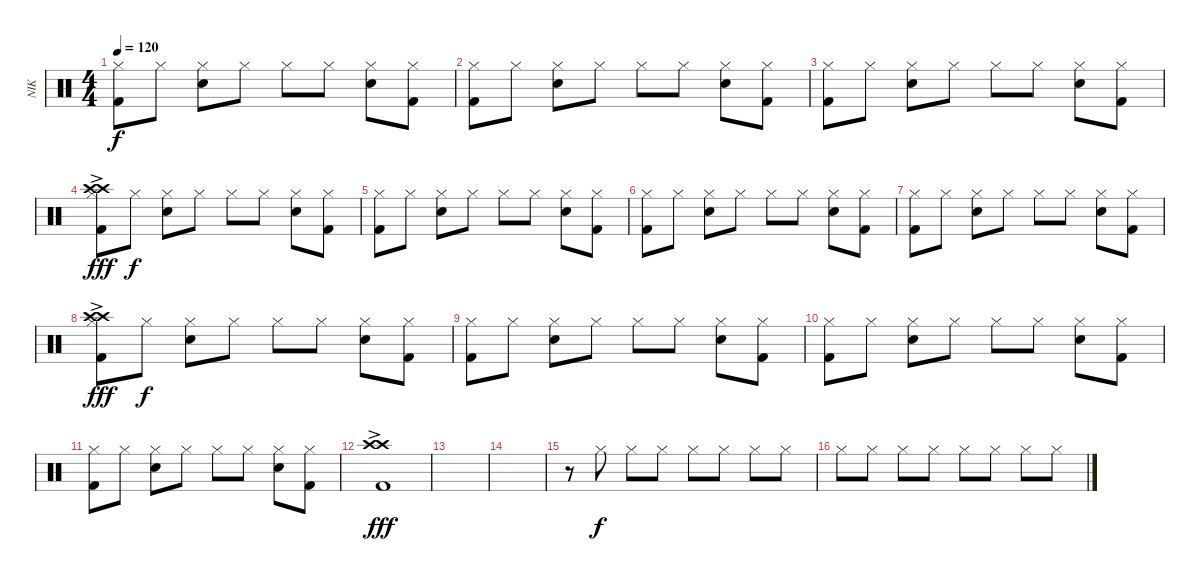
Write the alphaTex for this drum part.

\track ("NIK" "NIK") {instrument percussion}
\staff {score}
\articulation defaults
\ts (4 4)
\tempo 120
\clef neutral
\ks c
("Hi-Hat (closed)" "Kick (hit) 2").8{dy f} "Hi-Hat (closed)".8 ("Snare (hit) 2" "Hi-Hat (closed)").8 "Hi-Hat (closed)".8 "Hi-Hat (closed)".8 "Hi-Hat (closed)".8 ("Snare (hit) 2" "Hi-Hat (closed)").8 ("Hi-Hat (closed)" "Kick (hit) 2").8 |
("Hi-Hat (closed)" "Kick (hit) 2").8 "Hi-Hat (closed)".8 ("Snare (hit) 2" "Hi-Hat (closed)").8 "Hi-Hat (closed)".8 "Hi-Hat (closed)".8 "Hi-Hat (closed)".8 ("Snare (hit) 2" "Hi-Hat (closed)").8 ("Hi-Hat (closed)" "Kick (hit) 2").8 |
("Hi-Hat (closed)" "Kick (hit) 2").8 "Hi-Hat (closed)".8 ("Snare (hit) 2" "Hi-Hat (closed)").8 "Hi-Hat (closed)".8 "Hi-Hat (closed)".8 "Hi-Hat (closed)".8 ("Snare (hit) 2" "Hi-Hat (closed)").8 ("Hi-Hat (closed)" "Kick (hit) 2").8 |
("Crash high (hit)"{ac} "Crash high (hit)"{ac} "Hi-Hat (closed)" "Kick (hit) 2").8{dy fff} "Hi-Hat (closed)".8{dy f} ("Snare (hit) 2" "Hi-Hat (closed)").8 "Hi-Hat (closed)".8 "Hi-Hat (closed)".8 "Hi-Hat (closed)".8 ("Snare (hit) 2" "Hi-Hat (closed)").8 ("Hi-Hat (closed)" "Kick (hit) 2").8 |
("Hi-Hat (closed)" "Kick (hit) 2").8 "Hi-Hat (closed)".8 ("Snare (hit) 2" "Hi-Hat (closed)").8 "Hi-Hat (closed)".8 "Hi-Hat (closed)".8 "Hi-Hat (closed)".8 ("Snare (hit) 2" "Hi-Hat (closed)").8 ("Hi-Hat (closed)" "Kick (hit) 2").8 |
("Hi-Hat (closed)" "Kick (hit) 2").8 "Hi-Hat (closed)".8 ("Snare (hit) 2" "Hi-Hat (closed)").8 "Hi-Hat (closed)".8 "Hi-Hat (closed)".8 "Hi-Hat (closed)".8 ("Snare (hit) 2" "Hi-Hat (closed)").8 ("Hi-Hat (closed)" "Kick (hit) 2").8 |
("Hi-Hat (closed)" "Kick (hit) 2").8 "Hi-Hat (closed)".8 ("Snare (hit) 2" "Hi-Hat (closed)").8 "Hi-Hat (closed)".8 "Hi-Hat (closed)".8 "Hi-Hat (closed)".8 ("Snare (hit) 2" "Hi-Hat (closed)").8 ("Hi-Hat (closed)" "Kick (hit) 2").8 |
("Crash high (hit)"{ac} "Crash high (hit)"{ac} "Hi-Hat (closed)" "Kick (hit) 2").8{dy fff} "Hi-Hat (closed)".8{dy f} ("Snare (hit) 2" "Hi-Hat (closed)").8 "Hi-Hat (closed)".8 "Hi-Hat (closed)".8 "Hi-Hat (closed)".8 ("Snare (hit) 2" "Hi-Hat (closed)").8 ("Hi-Hat (closed)" "Kick (hit) 2").8 |
("Hi-Hat (closed)" "Kick (hit) 2").8 "Hi-Hat (closed)".8 ("Snare (hit) 2" "Hi-Hat (closed)").8 "Hi-Hat (closed)".8 "Hi-Hat (closed)".8 "Hi-Hat (closed)".8 ("Snare (hit) 2" "Hi-Hat (closed)").8 ("Hi-Hat (closed)" "Kick (hit) 2").8 |
("Hi-Hat (closed)" "Kick (hit) 2").8 "Hi-Hat (closed)".8 ("Snare (hit) 2" "Hi-Hat (closed)").8 "Hi-Hat (closed)".8 "Hi-Hat (closed)".8 "Hi-Hat (closed)".8 ("Snare (hit) 2" "Hi-Hat (closed)").8 ("Hi-Hat (closed)" "Kick (hit) 2").8 |
("Hi-Hat (closed)" "Kick (hit) 2").8 "Hi-Hat (closed)".8 ("Snare (hit) 2" "Hi-Hat (closed)").8 "Hi-Hat (closed)".8 "Hi-Hat (closed)".8 "Hi-Hat (closed)".8 ("Snare (hit) 2" "Hi-Hat (closed)").8 ("Hi-Hat (closed)" "Kick (hit) 2").8 |
("Crash high (hit)"{ac} "Crash high (hit)"{ac} "Kick (hit) 2"{ac}).1{dy fff} |
|
|
r.8 "Hi-Hat (closed)".8{dy f} "Hi-Hat (closed)".8 "Hi-Hat (closed)".8 "Hi-Hat (closed)".8 "Hi-Hat (closed)".8 "Hi-Hat (closed)".8 "Hi-Hat (closed)".8 |
"Hi-Hat (closed)".8 "Hi-Hat (closed)".8 "Hi-Hat (closed)".8 "Hi-Hat (closed)".8 "Hi-Hat (closed)".8 "Hi-Hat (closed)".8 "Hi-Hat (closed)".8 "Hi-Hat (closed)".8
